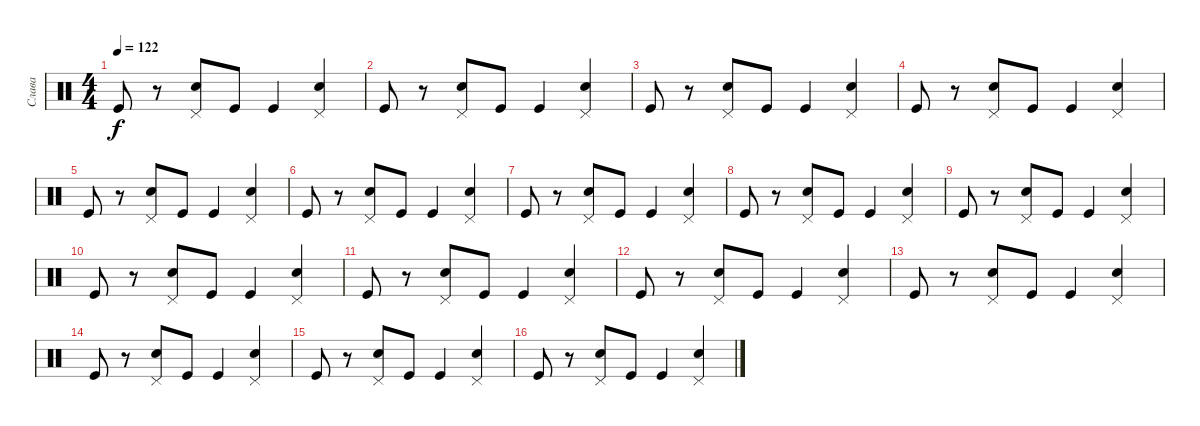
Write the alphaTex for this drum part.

\track ("Слава" "Слава") {instrument percussion}
\staff {score}
\articulation defaults
\ts (4 4)
\tempo 122
\clef neutral
\ks c "Kick (hit)".8{dy f}
r.8 ("Pedal Hi-Hat (hit)" "Snare (hit) 2").8 "Kick (hit)".8 "Kick (hit)".4 ("Pedal Hi-Hat (hit)" "Snare (hit) 2").4 |
"Kick (hit)".8 r.8 ("Pedal Hi-Hat (hit)" "Snare (hit) 2").8 "Kick (hit)".8 "Kick (hit)".4 ("Pedal Hi-Hat (hit)" "Snare (hit) 2").4 |
"Kick (hit)".8 r.8 ("Pedal Hi-Hat (hit)" "Snare (hit) 2").8 "Kick (hit)".8 "Kick (hit)".4 ("Pedal Hi-Hat (hit)" "Snare (hit) 2").4 |
"Kick (hit)".8 r.8 ("Pedal Hi-Hat (hit)" "Snare (hit) 2").8 "Kick (hit)".8 "Kick (hit)".4 ("Pedal Hi-Hat (hit)" "Snare (hit) 2").4 |
"Kick (hit)".8 r.8 ("Pedal Hi-Hat (hit)" "Snare (hit) 2").8 "Kick (hit)".8 "Kick (hit)".4 ("Pedal Hi-Hat (hit)" "Snare (hit) 2").4 |
"Kick (hit)".8 r.8 ("Pedal Hi-Hat (hit)" "Snare (hit) 2").8 "Kick (hit)".8 "Kick (hit)".4 ("Pedal Hi-Hat (hit)" "Snare (hit) 2").4 |
"Kick (hit)".8 r.8 ("Pedal Hi-Hat (hit)" "Snare (hit) 2").8 "Kick (hit)".8 "Kick (hit)".4 ("Pedal Hi-Hat (hit)" "Snare (hit) 2").4 |
"Kick (hit)".8 r.8 ("Pedal Hi-Hat (hit)" "Snare (hit) 2").8 "Kick (hit)".8 "Kick (hit)".4 ("Pedal Hi-Hat (hit)" "Snare (hit) 2").4 |
"Kick (hit)".8 r.8 ("Pedal Hi-Hat (hit)" "Snare (hit) 2").8 "Kick (hit)".8 "Kick (hit)".4 ("Pedal Hi-Hat (hit)" "Snare (hit) 2").4 |
"Kick (hit)".8 r.8 ("Pedal Hi-Hat (hit)" "Snare (hit) 2").8 "Kick (hit)".8 "Kick (hit)".4 ("Pedal Hi-Hat (hit)" "Snare (hit) 2").4 |
"Kick (hit)".8 r.8 ("Pedal Hi-Hat (hit)" "Snare (hit) 2").8 "Kick (hit)".8 "Kick (hit)".4 ("Pedal Hi-Hat (hit)" "Snare (hit) 2").4 |
"Kick (hit)".8 r.8 ("Pedal Hi-Hat (hit)" "Snare (hit) 2").8 "Kick (hit)".8 "Kick (hit)".4 ("Pedal Hi-Hat (hit)" "Snare (hit) 2").4 |
"Kick (hit)".8 r.8 ("Pedal Hi-Hat (hit)" "Snare (hit) 2").8 "Kick (hit)".8 "Kick (hit)".4 ("Pedal Hi-Hat (hit)" "Snare (hit) 2").4 |
"Kick (hit)".8 r.8 ("Pedal Hi-Hat (hit)" "Snare (hit) 2").8 "Kick (hit)".8 "Kick (hit)".4 ("Pedal Hi-Hat (hit)" "Snare (hit) 2").4 |
"Kick (hit)".8 r.8 ("Pedal Hi-Hat (hit)" "Snare (hit) 2").8 "Kick (hit)".8 "Kick (hit)".4 ("Pedal Hi-Hat (hit)" "Snare (hit) 2").4 |
"Kick (hit)".8 r.8 ("Pedal Hi-Hat (hit)" "Snare (hit) 2").8 "Kick (hit)".8 "Kick (hit)".4 ("Pedal Hi-Hat (hit)" "Snare (hit) 2").4
